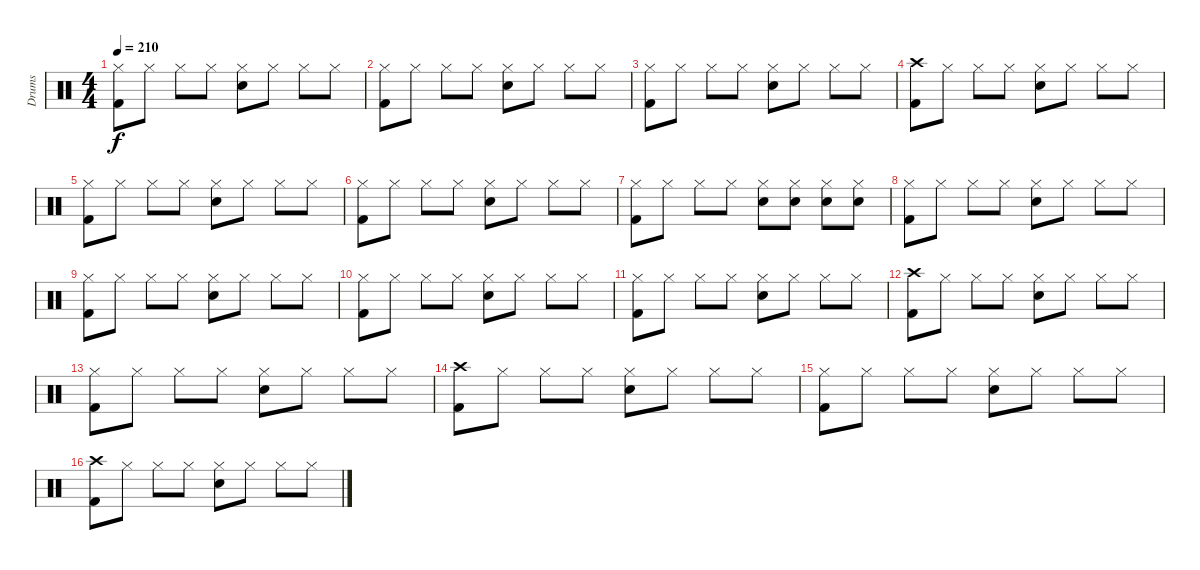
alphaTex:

\track ("Drums" "Drums") {instrument percussion}
\staff {score}
\articulation defaults
\ts (4 4)
\tempo 210
\clef neutral
\ks c
("Hi-Hat (closed)" "Kick (hit) 2").8{dy f} "Hi-Hat (closed)".8 "Hi-Hat (closed)".8 "Hi-Hat (closed)".8 ("Hi-Hat (closed)" "Electric Snare (hit)").8 "Hi-Hat (closed)".8 "Hi-Hat (closed)".8 "Hi-Hat (closed)".8 |
("Hi-Hat (closed)" "Kick (hit) 2").8 "Hi-Hat (closed)".8 "Hi-Hat (closed)".8 "Hi-Hat (closed)".8 ("Hi-Hat (closed)" "Electric Snare (hit)").8 "Hi-Hat (closed)".8 "Hi-Hat (closed)".8 "Hi-Hat (closed)".8 |
("Hi-Hat (closed)" "Kick (hit) 2").8 "Hi-Hat (closed)".8 "Hi-Hat (closed)".8 "Hi-Hat (closed)".8 ("Hi-Hat (closed)" "Electric Snare (hit)").8 "Hi-Hat (closed)".8 "Hi-Hat (closed)".8 "Hi-Hat (closed)".8 |
("Crash high (hit)" "Kick (hit) 2").8 "Hi-Hat (closed)".8 "Hi-Hat (closed)".8 "Hi-Hat (closed)".8 ("Hi-Hat (closed)" "Electric Snare (hit)").8 "Hi-Hat (closed)".8 "Hi-Hat (closed)".8 "Hi-Hat (closed)".8 |
("Hi-Hat (closed)" "Kick (hit) 2").8 "Hi-Hat (closed)".8 "Hi-Hat (closed)".8 "Hi-Hat (closed)".8 ("Hi-Hat (closed)" "Electric Snare (hit)").8 "Hi-Hat (closed)".8 "Hi-Hat (closed)".8 "Hi-Hat (closed)".8 |
("Hi-Hat (closed)" "Kick (hit) 2").8 "Hi-Hat (closed)".8 "Hi-Hat (closed)".8 "Hi-Hat (closed)".8 ("Hi-Hat (closed)" "Electric Snare (hit)").8 "Hi-Hat (closed)".8 "Hi-Hat (closed)".8 "Hi-Hat (closed)".8 |
("Hi-Hat (closed)" "Kick (hit) 2").8 "Hi-Hat (closed)".8 "Hi-Hat (closed)".8 "Hi-Hat (closed)".8 ("Hi-Hat (closed)" "Electric Snare (hit)").8 ("Hi-Hat (closed)" "Electric Snare (hit)").8 ("Hi-Hat (closed)" "Electric Snare (hit)").8 ("Hi-Hat (closed)" "Electric Snare (hit)").8 |
("Hi-Hat (closed)" "Kick (hit) 2").8 "Hi-Hat (closed)".8 "Hi-Hat (closed)".8 "Hi-Hat (closed)".8 ("Hi-Hat (closed)" "Electric Snare (hit)").8 "Hi-Hat (closed)".8 "Hi-Hat (closed)".8 "Hi-Hat (closed)".8 |
("Hi-Hat (closed)" "Kick (hit) 2").8 "Hi-Hat (closed)".8 "Hi-Hat (closed)".8 "Hi-Hat (closed)".8 ("Hi-Hat (closed)" "Electric Snare (hit)").8 "Hi-Hat (closed)".8 "Hi-Hat (closed)".8 "Hi-Hat (closed)".8 |
("Hi-Hat (closed)" "Kick (hit) 2").8 "Hi-Hat (closed)".8 "Hi-Hat (closed)".8 "Hi-Hat (closed)".8 ("Hi-Hat (closed)" "Electric Snare (hit)").8 "Hi-Hat (closed)".8 "Hi-Hat (closed)".8 "Hi-Hat (closed)".8 |
("Hi-Hat (closed)" "Kick (hit) 2").8 "Hi-Hat (closed)".8 "Hi-Hat (closed)".8 "Hi-Hat (closed)".8 ("Hi-Hat (closed)" "Electric Snare (hit)").8 "Hi-Hat (closed)".8 "Hi-Hat (closed)".8 "Hi-Hat (closed)".8 |
("Crash high (hit)" "Kick (hit) 2").8 "Hi-Hat (closed)".8 "Hi-Hat (closed)".8 "Hi-Hat (closed)".8 ("Hi-Hat (closed)" "Electric Snare (hit)").8 "Hi-Hat (closed)".8 "Hi-Hat (closed)".8 "Hi-Hat (closed)".8 |
("Hi-Hat (closed)" "Kick (hit) 2").8 "Hi-Hat (closed)".8 "Hi-Hat (closed)".8 "Hi-Hat (closed)".8 ("Hi-Hat (closed)" "Electric Snare (hit)").8 "Hi-Hat (closed)".8 "Hi-Hat (closed)".8 "Hi-Hat (closed)".8 |
("Crash high (hit)" "Kick (hit) 2").8 "Hi-Hat (closed)".8 "Hi-Hat (closed)".8 "Hi-Hat (closed)".8 ("Hi-Hat (closed)" "Electric Snare (hit)").8 "Hi-Hat (closed)".8 "Hi-Hat (closed)".8 "Hi-Hat (closed)".8 |
("Hi-Hat (closed)" "Kick (hit) 2").8 "Hi-Hat (closed)".8 "Hi-Hat (closed)".8 "Hi-Hat (closed)".8 ("Hi-Hat (closed)" "Electric Snare (hit)").8 "Hi-Hat (closed)".8 "Hi-Hat (closed)".8 "Hi-Hat (closed)".8 |
("Crash high (hit)" "Kick (hit) 2").8 "Hi-Hat (closed)".8 "Hi-Hat (closed)".8 "Hi-Hat (closed)".8 ("Hi-Hat (closed)" "Electric Snare (hit)").8 "Hi-Hat (closed)".8 "Hi-Hat (closed)".8 "Hi-Hat (closed)".8
